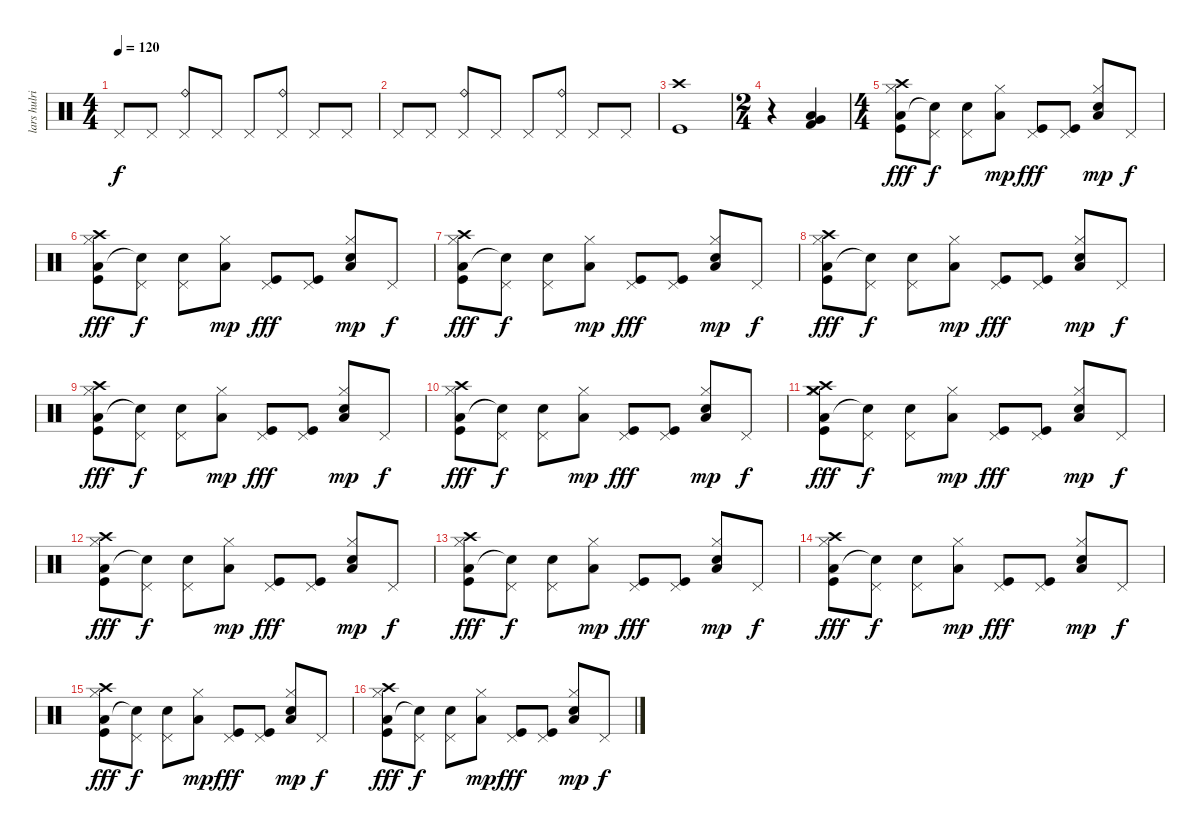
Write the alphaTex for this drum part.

\track ("lars hulrich" "lars hulri") {instrument percussion}
\staff {score}
\articulation defaults
\ts (4 4)
\tempo 120
\clef neutral
\ks c "Pedal Hi-Hat (hit)".8{dy f} "Pedal Hi-Hat (hit)".8
("Pedal Hi-Hat (hit)" "Ride (bell)").8 "Pedal Hi-Hat (hit)".8 "Pedal Hi-Hat (hit)".8 ("Pedal Hi-Hat (hit)" "Ride (bell)").8 "Pedal Hi-Hat (hit)".8 "Pedal Hi-Hat (hit)".8 |
"Pedal Hi-Hat (hit)".8 "Pedal Hi-Hat (hit)".8 ("Pedal Hi-Hat (hit)" "Ride (bell)").8 "Pedal Hi-Hat (hit)".8 "Pedal Hi-Hat (hit)".8 ("Pedal Hi-Hat (hit)" "Ride (bell)").8 "Pedal Hi-Hat (hit)".8 "Pedal Hi-Hat (hit)".8 |
("Crash high (hit)" "Kick (hit)").1 |
\ts (2 4)
r.4 ("Low Floor Tom (hit)" "Very Low Tom (hit)" "Kick (hit) 2").4 |
\ts (4 4)
("Hi-Hat (closed)" "Low Floor Tom (hit)" "Crash high (hit)" "Kick (hit)").8{dy fff} ("Pedal Hi-Hat (hit)" "Snare (hit)"{t}).8{dy f} ("Pedal Hi-Hat (hit)" "Electric Snare (hit)").8 ("Hi-Hat (closed)" "Low Floor Tom (hit)").8{dy mp} ("Pedal Hi-Hat (hit)" "Kick (hit)").8{dy fff} ("Pedal Hi-Hat (hit)" "Kick (hit)").8 ("Hi-Hat (closed)" "Low Floor Tom (hit)" "Electric Snare (hit)").8{dy mp} "Pedal Hi-Hat (hit)".8{dy f} |
("Hi-Hat (closed)" "Low Floor Tom (hit)" "Crash high (hit)" "Kick (hit)").8{dy fff} ("Pedal Hi-Hat (hit)" "Snare (hit)"{t}).8{dy f} ("Pedal Hi-Hat (hit)" "Electric Snare (hit)").8 ("Hi-Hat (closed)" "Low Floor Tom (hit)").8{dy mp} ("Pedal Hi-Hat (hit)" "Kick (hit)").8{dy fff} ("Pedal Hi-Hat (hit)" "Kick (hit)").8 ("Hi-Hat (closed)" "Low Floor Tom (hit)" "Electric Snare (hit)").8{dy mp} "Pedal Hi-Hat (hit)".8{dy f} |
("Hi-Hat (closed)" "Low Floor Tom (hit)" "Crash high (hit)" "Kick (hit)").8{dy fff} ("Pedal Hi-Hat (hit)" "Snare (hit)"{t}).8{dy f} ("Pedal Hi-Hat (hit)" "Electric Snare (hit)").8 ("Hi-Hat (closed)" "Low Floor Tom (hit)").8{dy mp} ("Pedal Hi-Hat (hit)" "Kick (hit)").8{dy fff} ("Pedal Hi-Hat (hit)" "Kick (hit)").8 ("Hi-Hat (closed)" "Low Floor Tom (hit)" "Electric Snare (hit)").8{dy mp} "Pedal Hi-Hat (hit)".8{dy f} |
("Hi-Hat (closed)" "Low Floor Tom (hit)" "Crash high (hit)" "Kick (hit)").8{dy fff} ("Pedal Hi-Hat (hit)" "Snare (hit)"{t}).8{dy f} ("Pedal Hi-Hat (hit)" "Electric Snare (hit)").8 ("Hi-Hat (closed)" "Low Floor Tom (hit)").8{dy mp} ("Pedal Hi-Hat (hit)" "Kick (hit)").8{dy fff} ("Pedal Hi-Hat (hit)" "Kick (hit)").8 ("Hi-Hat (closed)" "Low Floor Tom (hit)" "Electric Snare (hit)").8{dy mp} "Pedal Hi-Hat (hit)".8{dy f} |
("Hi-Hat (closed)" "Low Floor Tom (hit)" "Crash high (hit)" "Kick (hit)").8{dy fff} ("Pedal Hi-Hat (hit)" "Snare (hit)"{t}).8{dy f} ("Pedal Hi-Hat (hit)" "Electric Snare (hit)").8 ("Hi-Hat (closed)" "Low Floor Tom (hit)").8{dy mp} ("Pedal Hi-Hat (hit)" "Kick (hit)").8{dy fff} ("Pedal Hi-Hat (hit)" "Kick (hit)").8 ("Hi-Hat (closed)" "Low Floor Tom (hit)" "Electric Snare (hit)").8{dy mp} "Pedal Hi-Hat (hit)".8{dy f} |
("Hi-Hat (closed)" "Low Floor Tom (hit)" "Crash high (hit)" "Kick (hit)").8{dy fff} ("Pedal Hi-Hat (hit)" "Snare (hit)"{t}).8{dy f} ("Pedal Hi-Hat (hit)" "Electric Snare (hit)").8 ("Hi-Hat (closed)" "Low Floor Tom (hit)").8{dy mp} ("Pedal Hi-Hat (hit)" "Kick (hit)").8{dy fff} ("Pedal Hi-Hat (hit)" "Kick (hit)").8 ("Hi-Hat (closed)" "Low Floor Tom (hit)" "Electric Snare (hit)").8{dy mp} "Pedal Hi-Hat (hit)".8{dy f} |
("Hi-Hat (closed)" "Low Floor Tom (hit)" "Crash high (hit)" "Crash medium (hit)" "Kick (hit)").8{dy fff} ("Pedal Hi-Hat (hit)" "Snare (hit)"{t}).8{dy f} ("Pedal Hi-Hat (hit)" "Electric Snare (hit)").8 ("Hi-Hat (closed)" "Low Floor Tom (hit)").8{dy mp} ("Pedal Hi-Hat (hit)" "Kick (hit)").8{dy fff} ("Pedal Hi-Hat (hit)" "Kick (hit)").8 ("Hi-Hat (closed)" "Low Floor Tom (hit)" "Electric Snare (hit)").8{dy mp} "Pedal Hi-Hat (hit)".8{dy f} |
("Hi-Hat (closed)" "Low Floor Tom (hit)" "Crash high (hit)" "Kick (hit)").8{dy fff} ("Pedal Hi-Hat (hit)" "Snare (hit)"{t}).8{dy f} ("Pedal Hi-Hat (hit)" "Electric Snare (hit)").8 ("Hi-Hat (closed)" "Low Floor Tom (hit)").8{dy mp} ("Pedal Hi-Hat (hit)" "Kick (hit)").8{dy fff} ("Pedal Hi-Hat (hit)" "Kick (hit)").8 ("Hi-Hat (closed)" "Low Floor Tom (hit)" "Electric Snare (hit)").8{dy mp} "Pedal Hi-Hat (hit)".8{dy f} |
("Hi-Hat (closed)" "Low Floor Tom (hit)" "Crash high (hit)" "Kick (hit)").8{dy fff} ("Pedal Hi-Hat (hit)" "Snare (hit)"{t}).8{dy f} ("Pedal Hi-Hat (hit)" "Electric Snare (hit)").8 ("Hi-Hat (closed)" "Low Floor Tom (hit)").8{dy mp} ("Pedal Hi-Hat (hit)" "Kick (hit)").8{dy fff} ("Pedal Hi-Hat (hit)" "Kick (hit)").8 ("Hi-Hat (closed)" "Low Floor Tom (hit)" "Electric Snare (hit)").8{dy mp} "Pedal Hi-Hat (hit)".8{dy f} |
("Hi-Hat (closed)" "Low Floor Tom (hit)" "Crash high (hit)" "Kick (hit)").8{dy fff} ("Pedal Hi-Hat (hit)" "Snare (hit)"{t}).8{dy f} ("Pedal Hi-Hat (hit)" "Electric Snare (hit)").8 ("Hi-Hat (closed)" "Low Floor Tom (hit)").8{dy mp} ("Pedal Hi-Hat (hit)" "Kick (hit)").8{dy fff} ("Pedal Hi-Hat (hit)" "Kick (hit)").8 ("Hi-Hat (closed)" "Low Floor Tom (hit)" "Electric Snare (hit)").8{dy mp} "Pedal Hi-Hat (hit)".8{dy f} |
("Hi-Hat (closed)" "Low Floor Tom (hit)" "Crash high (hit)" "Kick (hit)").8{dy fff} ("Pedal Hi-Hat (hit)" "Snare (hit)"{t}).8{dy f} ("Pedal Hi-Hat (hit)" "Electric Snare (hit)").8 ("Hi-Hat (closed)" "Low Floor Tom (hit)").8{dy mp} ("Pedal Hi-Hat (hit)" "Kick (hit)").8{dy fff} ("Pedal Hi-Hat (hit)" "Kick (hit)").8 ("Hi-Hat (closed)" "Low Floor Tom (hit)" "Electric Snare (hit)").8{dy mp} "Pedal Hi-Hat (hit)".8{dy f} |
("Hi-Hat (closed)" "Low Floor Tom (hit)" "Crash high (hit)" "Kick (hit)").8{dy fff} ("Pedal Hi-Hat (hit)" "Snare (hit)"{t}).8{dy f} ("Pedal Hi-Hat (hit)" "Electric Snare (hit)").8 ("Hi-Hat (closed)" "Low Floor Tom (hit)").8{dy mp} ("Pedal Hi-Hat (hit)" "Kick (hit)").8{dy fff} ("Pedal Hi-Hat (hit)" "Kick (hit)").8 ("Hi-Hat (closed)" "Low Floor Tom (hit)" "Electric Snare (hit)").8{dy mp} "Pedal Hi-Hat (hit)".8{dy f}
